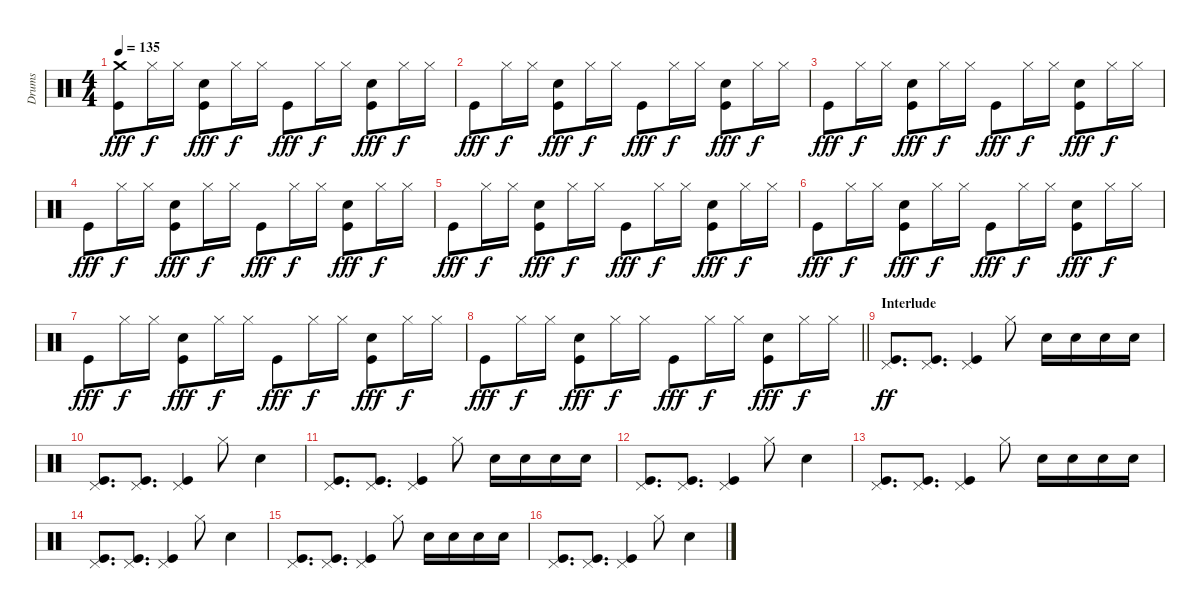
\track ("Drums" "Drums") {instrument percussion}
\staff {score}
\articulation defaults
\ts (4 4)
\tempo 135
\clef neutral
\ks c
("Kick (hit)" "Crash medium (hit)").8{dy fff} "Hi-Hat (closed)".16{dy f} "Hi-Hat (closed)".16 ("Kick (hit)" "Snare (hit) 2").8{dy fff} "Hi-Hat (closed)".16{dy f} "Hi-Hat (closed)".16 "Kick (hit)".8{dy fff} "Hi-Hat (closed)".16{dy f} "Hi-Hat (closed)".16 ("Kick (hit)" "Snare (hit) 2").8{dy fff} "Hi-Hat (closed)".16{dy f} "Hi-Hat (closed)".16 |
"Kick (hit)".8{dy fff} "Hi-Hat (closed)".16{dy f} "Hi-Hat (closed)".16 ("Kick (hit)" "Snare (hit) 2").8{dy fff} "Hi-Hat (closed)".16{dy f} "Hi-Hat (closed)".16 "Kick (hit)".8{dy fff} "Hi-Hat (closed)".16{dy f} "Hi-Hat (closed)".16 ("Kick (hit)" "Snare (hit) 2").8{dy fff} "Hi-Hat (closed)".16{dy f} "Hi-Hat (closed)".16 |
"Kick (hit)".8{dy fff} "Hi-Hat (closed)".16{dy f} "Hi-Hat (closed)".16 ("Kick (hit)" "Snare (hit) 2").8{dy fff} "Hi-Hat (closed)".16{dy f} "Hi-Hat (closed)".16 "Kick (hit)".8{dy fff} "Hi-Hat (closed)".16{dy f} "Hi-Hat (closed)".16 ("Kick (hit)" "Snare (hit) 2").8{dy fff} "Hi-Hat (closed)".16{dy f} "Hi-Hat (closed)".16 |
"Kick (hit)".8{dy fff} "Hi-Hat (closed)".16{dy f} "Hi-Hat (closed)".16 ("Kick (hit)" "Snare (hit) 2").8{dy fff} "Hi-Hat (closed)".16{dy f} "Hi-Hat (closed)".16 "Kick (hit)".8{dy fff} "Hi-Hat (closed)".16{dy f} "Hi-Hat (closed)".16 ("Kick (hit)" "Snare (hit) 2").8{dy fff} "Hi-Hat (closed)".16{dy f} "Hi-Hat (closed)".16 |
"Kick (hit)".8{dy fff} "Hi-Hat (closed)".16{dy f} "Hi-Hat (closed)".16 ("Kick (hit)" "Snare (hit) 2").8{dy fff} "Hi-Hat (closed)".16{dy f} "Hi-Hat (closed)".16 "Kick (hit)".8{dy fff} "Hi-Hat (closed)".16{dy f} "Hi-Hat (closed)".16 ("Kick (hit)" "Snare (hit) 2").8{dy fff} "Hi-Hat (closed)".16{dy f} "Hi-Hat (closed)".16 |
"Kick (hit)".8{dy fff} "Hi-Hat (closed)".16{dy f} "Hi-Hat (closed)".16 ("Kick (hit)" "Snare (hit) 2").8{dy fff} "Hi-Hat (closed)".16{dy f} "Hi-Hat (closed)".16 "Kick (hit)".8{dy fff} "Hi-Hat (closed)".16{dy f} "Hi-Hat (closed)".16 ("Kick (hit)" "Snare (hit) 2").8{dy fff} "Hi-Hat (closed)".16{dy f} "Hi-Hat (closed)".16 |
"Kick (hit)".8{dy fff} "Hi-Hat (closed)".16{dy f} "Hi-Hat (closed)".16 ("Kick (hit)" "Snare (hit) 2").8{dy fff} "Hi-Hat (closed)".16{dy f} "Hi-Hat (closed)".16 "Kick (hit)".8{dy fff} "Hi-Hat (closed)".16{dy f} "Hi-Hat (closed)".16 ("Kick (hit)" "Snare (hit) 2").8{dy fff} "Hi-Hat (closed)".16{dy f} "Hi-Hat (closed)".16 |
\barLineRight lightlight "Kick (hit)".8{dy fff} "Hi-Hat (closed)".16{dy f} "Hi-Hat (closed)".16
("Kick (hit)" "Snare (hit) 2").8{dy fff} "Hi-Hat (closed)".16{dy f} "Hi-Hat (closed)".16 "Kick (hit)".8{dy fff} "Hi-Hat (closed)".16{dy f} "Hi-Hat (closed)".16 ("Kick (hit)" "Snare (hit) 2").8{dy fff} "Hi-Hat (closed)".16{dy f} "Hi-Hat (closed)".16 |
\section ("" "Interlude")
("Kick (hit)" "Pedal Hi-Hat (hit)").8{d dy ff} ("Kick (hit)" "Pedal Hi-Hat (hit)").8{d} ("Kick (hit)" "Pedal Hi-Hat (hit)").4 "Hi-Hat (closed)".8 "Snare (hit) 2".16 "Snare (hit) 2".16 "Snare (hit) 2".16 "Snare (hit) 2".16 |
("Kick (hit)" "Pedal Hi-Hat (hit)").8{d} ("Kick (hit)" "Pedal Hi-Hat (hit)").8{d} ("Kick (hit)" "Pedal Hi-Hat (hit)").4 "Hi-Hat (closed)".8 "Snare (hit) 2".4 |
("Kick (hit)" "Pedal Hi-Hat (hit)").8{d} ("Kick (hit)" "Pedal Hi-Hat (hit)").8{d} ("Kick (hit)" "Pedal Hi-Hat (hit)").4 "Hi-Hat (closed)".8 "Snare (hit) 2".16 "Snare (hit) 2".16 "Snare (hit) 2".16 "Snare (hit) 2".16 |
("Kick (hit)" "Pedal Hi-Hat (hit)").8{d} ("Kick (hit)" "Pedal Hi-Hat (hit)").8{d} ("Kick (hit)" "Pedal Hi-Hat (hit)").4 "Hi-Hat (closed)".8 "Snare (hit) 2".4 |
("Kick (hit)" "Pedal Hi-Hat (hit)").8{d} ("Kick (hit)" "Pedal Hi-Hat (hit)").8{d} ("Kick (hit)" "Pedal Hi-Hat (hit)").4 "Hi-Hat (closed)".8 "Snare (hit) 2".16 "Snare (hit) 2".16 "Snare (hit) 2".16 "Snare (hit) 2".16 |
("Kick (hit)" "Pedal Hi-Hat (hit)").8{d} ("Kick (hit)" "Pedal Hi-Hat (hit)").8{d} ("Kick (hit)" "Pedal Hi-Hat (hit)").4 "Hi-Hat (closed)".8 "Snare (hit) 2".4 |
("Kick (hit)" "Pedal Hi-Hat (hit)").8{d} ("Kick (hit)" "Pedal Hi-Hat (hit)").8{d} ("Kick (hit)" "Pedal Hi-Hat (hit)").4 "Hi-Hat (closed)".8 "Snare (hit) 2".16 "Snare (hit) 2".16 "Snare (hit) 2".16 "Snare (hit) 2".16 |
("Kick (hit)" "Pedal Hi-Hat (hit)").8{d} ("Kick (hit)" "Pedal Hi-Hat (hit)").8{d} ("Kick (hit)" "Pedal Hi-Hat (hit)").4 "Hi-Hat (closed)".8 "Snare (hit) 2".4
